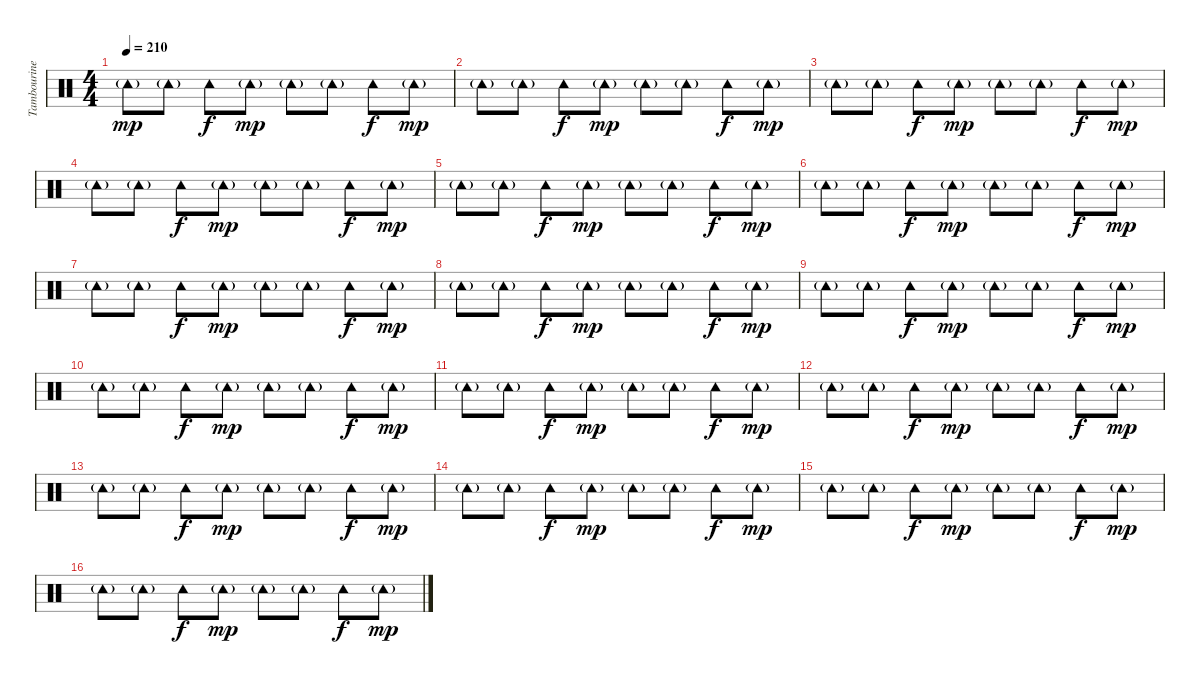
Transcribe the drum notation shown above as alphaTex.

\track ("Tambourine" "Tambourine") {instrument percussion}
\staff {score}
\articulation defaults
\ts (4 4)
\tempo 210
\clef neutral
\ks c "Tambourine (hit)"{g}.8{dy mp} "Tambourine (hit)"{g}.8 "Tambourine (hit)".8{dy f} "Tambourine (hit)"{g}.8{dy mp} "Tambourine (hit)"{g}.8 "Tambourine (hit)"{g}.8 "Tambourine (hit)".8{dy f} "Tambourine (hit)"{g}.8{dy mp}
|
"Tambourine (hit)"{g}.8 "Tambourine (hit)"{g}.8 "Tambourine (hit)".8{dy f} "Tambourine (hit)"{g}.8{dy mp} "Tambourine (hit)"{g}.8 "Tambourine (hit)"{g}.8 "Tambourine (hit)".8{dy f} "Tambourine (hit)"{g}.8{dy mp} |
"Tambourine (hit)"{g}.8 "Tambourine (hit)"{g}.8 "Tambourine (hit)".8{dy f} "Tambourine (hit)"{g}.8{dy mp} "Tambourine (hit)"{g}.8 "Tambourine (hit)"{g}.8 "Tambourine (hit)".8{dy f} "Tambourine (hit)"{g}.8{dy mp} |
"Tambourine (hit)"{g}.8 "Tambourine (hit)"{g}.8 "Tambourine (hit)".8{dy f} "Tambourine (hit)"{g}.8{dy mp} "Tambourine (hit)"{g}.8 "Tambourine (hit)"{g}.8 "Tambourine (hit)".8{dy f} "Tambourine (hit)"{g}.8{dy mp} |
"Tambourine (hit)"{g}.8 "Tambourine (hit)"{g}.8 "Tambourine (hit)".8{dy f} "Tambourine (hit)"{g}.8{dy mp} "Tambourine (hit)"{g}.8 "Tambourine (hit)"{g}.8 "Tambourine (hit)".8{dy f} "Tambourine (hit)"{g}.8{dy mp} |
"Tambourine (hit)"{g}.8 "Tambourine (hit)"{g}.8 "Tambourine (hit)".8{dy f} "Tambourine (hit)"{g}.8{dy mp} "Tambourine (hit)"{g}.8 "Tambourine (hit)"{g}.8 "Tambourine (hit)".8{dy f} "Tambourine (hit)"{g}.8{dy mp} |
"Tambourine (hit)"{g}.8 "Tambourine (hit)"{g}.8 "Tambourine (hit)".8{dy f} "Tambourine (hit)"{g}.8{dy mp} "Tambourine (hit)"{g}.8 "Tambourine (hit)"{g}.8 "Tambourine (hit)".8{dy f} "Tambourine (hit)"{g}.8{dy mp} |
"Tambourine (hit)"{g}.8 "Tambourine (hit)"{g}.8 "Tambourine (hit)".8{dy f} "Tambourine (hit)"{g}.8{dy mp} "Tambourine (hit)"{g}.8 "Tambourine (hit)"{g}.8 "Tambourine (hit)".8{dy f} "Tambourine (hit)"{g}.8{dy mp} |
"Tambourine (hit)"{g}.8 "Tambourine (hit)"{g}.8 "Tambourine (hit)".8{dy f} "Tambourine (hit)"{g}.8{dy mp} "Tambourine (hit)"{g}.8 "Tambourine (hit)"{g}.8 "Tambourine (hit)".8{dy f} "Tambourine (hit)"{g}.8{dy mp} |
"Tambourine (hit)"{g}.8 "Tambourine (hit)"{g}.8 "Tambourine (hit)".8{dy f} "Tambourine (hit)"{g}.8{dy mp} "Tambourine (hit)"{g}.8 "Tambourine (hit)"{g}.8 "Tambourine (hit)".8{dy f} "Tambourine (hit)"{g}.8{dy mp} |
"Tambourine (hit)"{g}.8 "Tambourine (hit)"{g}.8 "Tambourine (hit)".8{dy f} "Tambourine (hit)"{g}.8{dy mp} "Tambourine (hit)"{g}.8 "Tambourine (hit)"{g}.8 "Tambourine (hit)".8{dy f} "Tambourine (hit)"{g}.8{dy mp} |
"Tambourine (hit)"{g}.8 "Tambourine (hit)"{g}.8 "Tambourine (hit)".8{dy f} "Tambourine (hit)"{g}.8{dy mp} "Tambourine (hit)"{g}.8 "Tambourine (hit)"{g}.8 "Tambourine (hit)".8{dy f} "Tambourine (hit)"{g}.8{dy mp} |
"Tambourine (hit)"{g}.8 "Tambourine (hit)"{g}.8 "Tambourine (hit)".8{dy f} "Tambourine (hit)"{g}.8{dy mp} "Tambourine (hit)"{g}.8 "Tambourine (hit)"{g}.8 "Tambourine (hit)".8{dy f} "Tambourine (hit)"{g}.8{dy mp} |
"Tambourine (hit)"{g}.8 "Tambourine (hit)"{g}.8 "Tambourine (hit)".8{dy f} "Tambourine (hit)"{g}.8{dy mp} "Tambourine (hit)"{g}.8 "Tambourine (hit)"{g}.8 "Tambourine (hit)".8{dy f} "Tambourine (hit)"{g}.8{dy mp} |
"Tambourine (hit)"{g}.8 "Tambourine (hit)"{g}.8 "Tambourine (hit)".8{dy f} "Tambourine (hit)"{g}.8{dy mp} "Tambourine (hit)"{g}.8 "Tambourine (hit)"{g}.8 "Tambourine (hit)".8{dy f} "Tambourine (hit)"{g}.8{dy mp} |
"Tambourine (hit)"{g}.8 "Tambourine (hit)"{g}.8 "Tambourine (hit)".8{dy f} "Tambourine (hit)"{g}.8{dy mp} "Tambourine (hit)"{g}.8 "Tambourine (hit)"{g}.8 "Tambourine (hit)".8{dy f} "Tambourine (hit)"{g}.8{dy mp}
